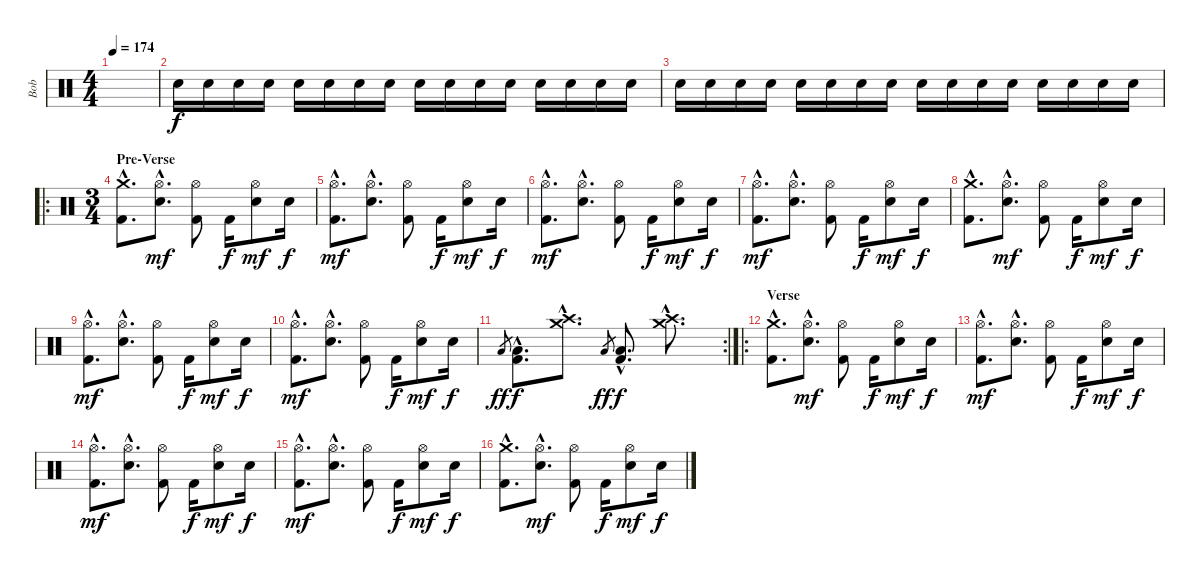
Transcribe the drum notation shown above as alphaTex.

\track ("Bob" "Bob") {instrument percussion}
\staff {score}
\articulation defaults
\ts (4 4)
\tempo 174
\clef neutral
\ks c
|
"Snare (hit) 2".16 "Snare (hit) 2".16 "Snare (hit) 2".16 "Snare (hit) 2".16 "Snare (hit) 2".16 "Snare (hit) 2".16 "Snare (hit) 2".16 "Snare (hit) 2".16 "Snare (hit) 2".16 "Snare (hit) 2".16 "Snare (hit) 2".16 "Snare (hit) 2".16 "Snare (hit) 2".16 "Snare (hit) 2".16 "Snare (hit) 2".16 "Snare (hit) 2".16 |
"Snare (hit) 2".16 "Snare (hit) 2".16 "Snare (hit) 2".16 "Snare (hit) 2".16 "Snare (hit) 2".16 "Snare (hit) 2".16 "Snare (hit) 2".16 "Snare (hit) 2".16 "Snare (hit) 2".16 "Snare (hit) 2".16 "Snare (hit) 2".16 "Snare (hit) 2".16 "Snare (hit) 2".16 "Snare (hit) 2".16 "Snare (hit) 2".16 "Snare (hit) 2".16 |
\ro
\ts (3 4)
\section ("" "Pre-Verse")
("Crash medium (hit)"{hac} "Kick (hit) 2"{hac}).8{d} ("Hi-Hat (open)"{hac} "Electric Snare (hit)"{hac}).8{d dy mf} ("Hi-Hat (open)" "Kick (hit) 2").8 "Kick (hit) 2".16{dy f} ("Hi-Hat (open)" "Electric Snare (hit)").8{dy mf} "Electric Snare (hit)".16{dy f} |
("Hi-Hat (open)"{hac} "Kick (hit) 2"{hac}).8{d dy mf} ("Hi-Hat (open)"{hac} "Electric Snare (hit)"{hac}).8{d} ("Hi-Hat (open)" "Kick (hit) 2").8 "Kick (hit) 2".16{dy f} ("Hi-Hat (open)" "Electric Snare (hit)").8{dy mf} "Electric Snare (hit)".16{dy f} |
("Hi-Hat (open)"{hac} "Kick (hit) 2"{hac}).8{d dy mf} ("Hi-Hat (open)"{hac} "Electric Snare (hit)"{hac}).8{d} ("Hi-Hat (open)" "Kick (hit) 2").8 "Kick (hit) 2".16{dy f} ("Hi-Hat (open)" "Electric Snare (hit)").8{dy mf} "Electric Snare (hit)".16{dy f} |
("Hi-Hat (open)"{hac} "Kick (hit) 2"{hac}).8{d dy mf} ("Hi-Hat (open)"{hac} "Electric Snare (hit)"{hac}).8{d} ("Hi-Hat (open)" "Kick (hit) 2").8 "Kick (hit) 2".16{dy f} ("Hi-Hat (open)" "Electric Snare (hit)").8{dy mf} "Electric Snare (hit)".16{dy f} |
("Crash medium (hit)"{hac} "Kick (hit) 2"{hac}).8{d} ("Hi-Hat (open)"{hac} "Electric Snare (hit)"{hac}).8{d dy mf} ("Hi-Hat (open)" "Kick (hit) 2").8 "Kick (hit) 2".16{dy f} ("Hi-Hat (open)" "Electric Snare (hit)").8{dy mf} "Electric Snare (hit)".16{dy f} |
("Hi-Hat (open)"{hac} "Kick (hit) 2"{hac}).8{d dy mf} ("Hi-Hat (open)"{hac} "Electric Snare (hit)"{hac}).8{d} ("Hi-Hat (open)" "Kick (hit) 2").8 "Kick (hit) 2".16{dy f} ("Hi-Hat (open)" "Electric Snare (hit)").8{dy mf} "Electric Snare (hit)".16{dy f} |
("Hi-Hat (open)"{hac} "Kick (hit) 2"{hac}).8{d dy mf} ("Hi-Hat (open)"{hac} "Electric Snare (hit)"{hac}).8{d} ("Hi-Hat (open)" "Kick (hit) 2").8 "Kick (hit) 2".16{dy f} ("Hi-Hat (open)" "Electric Snare (hit)").8{dy mf} "Electric Snare (hit)".16{dy f} |
\rc 2 "Low Floor Tom (hit)".8{gr dy ff}
("Low Floor Tom (hit)"{hac} "Kick (hit) 2"{hac}).8{d dy f} ("Crash medium (hit)"{hac} "Crash high (hit)"{hac}).8{d} "Low Floor Tom (hit)".8{gr dy ff} ("Low Floor Tom (hit)"{hac} "Kick (hit) 2"{hac}).8{d dy f} ("Crash medium (hit)"{hac} "Crash high (hit)"{hac}).8{d} |
\ro
\section ("" "Verse")
("Crash medium (hit)"{hac} "Kick (hit) 2"{hac}).8{d} ("Hi-Hat (open)"{hac} "Electric Snare (hit)"{hac}).8{d dy mf} ("Hi-Hat (open)" "Kick (hit) 2").8 "Kick (hit) 2".16{dy f} ("Hi-Hat (open)" "Electric Snare (hit)").8{dy mf} "Electric Snare (hit)".16{dy f} |
("Hi-Hat (open)"{hac} "Kick (hit) 2"{hac}).8{d dy mf} ("Hi-Hat (open)"{hac} "Electric Snare (hit)"{hac}).8{d} ("Hi-Hat (open)" "Kick (hit) 2").8 "Kick (hit) 2".16{dy f} ("Hi-Hat (open)" "Electric Snare (hit)").8{dy mf} "Electric Snare (hit)".16{dy f} |
("Hi-Hat (open)"{hac} "Kick (hit) 2"{hac}).8{d dy mf} ("Hi-Hat (open)"{hac} "Electric Snare (hit)"{hac}).8{d} ("Hi-Hat (open)" "Kick (hit) 2").8 "Kick (hit) 2".16{dy f} ("Hi-Hat (open)" "Electric Snare (hit)").8{dy mf} "Electric Snare (hit)".16{dy f} |
("Hi-Hat (open)"{hac} "Kick (hit) 2"{hac}).8{d dy mf} ("Hi-Hat (open)"{hac} "Electric Snare (hit)"{hac}).8{d} ("Hi-Hat (open)" "Kick (hit) 2").8 "Kick (hit) 2".16{dy f} ("Hi-Hat (open)" "Electric Snare (hit)").8{dy mf} "Electric Snare (hit)".16{dy f} |
("Crash medium (hit)"{hac} "Kick (hit) 2"{hac}).8{d} ("Hi-Hat (open)"{hac} "Electric Snare (hit)"{hac}).8{d dy mf} ("Hi-Hat (open)" "Kick (hit) 2").8 "Kick (hit) 2".16{dy f} ("Hi-Hat (open)" "Electric Snare (hit)").8{dy mf} "Electric Snare (hit)".16{dy f}
